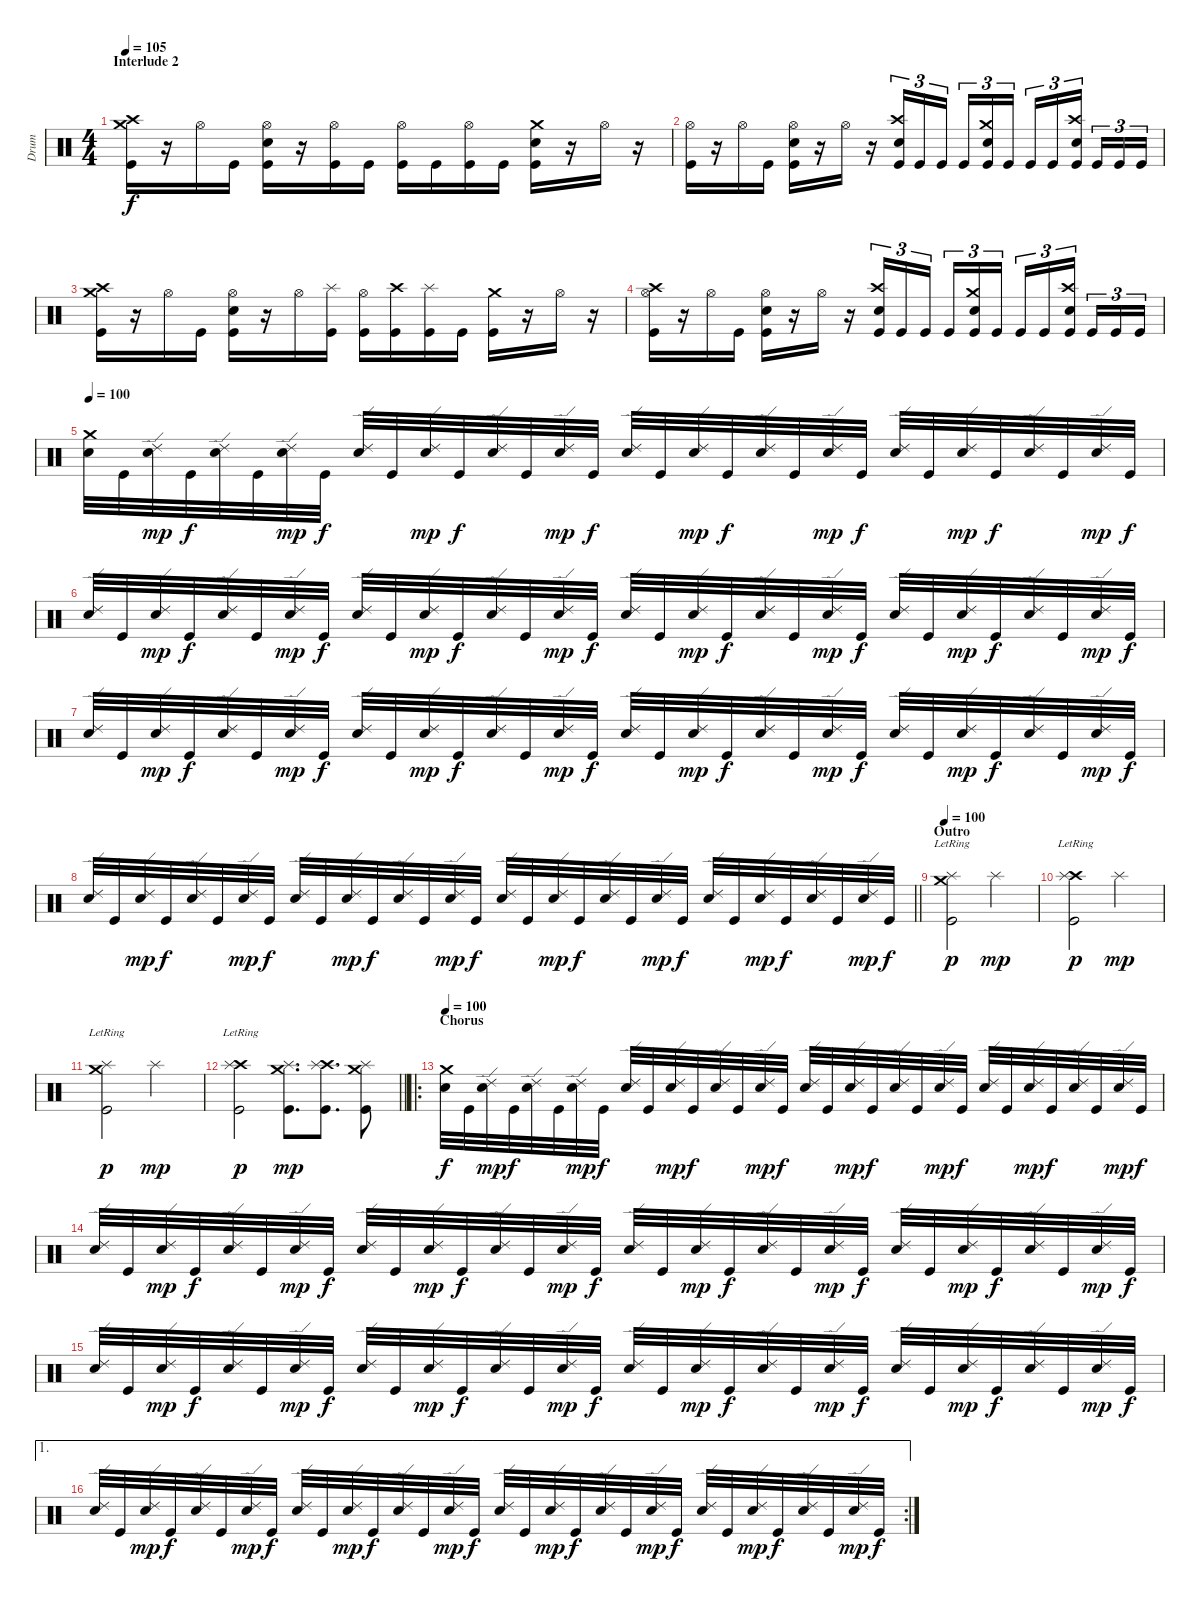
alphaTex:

\track ("Drum" "Drum") {instrument percussion}
\staff {score}
\articulation defaults
\ts (4 4)
\section ("" "Interlude 2")
\tempo 105
\clef neutral
\ks c
("Kick (hit)" "Crash medium (hit)" "Crash high (hit)").16{dy f} r.16 "Hi-Hat (open)".16 "Kick (hit)".16 ("Kick (hit)" "Hi-Hat (open)" "Electric Snare (hit)").16 r.16 ("Kick (hit)" "Hi-Hat (open)").16 "Kick (hit)".16 ("Kick (hit)" "Hi-Hat (open)").16 "Kick (hit)".16 ("Kick (hit)" "Hi-Hat (open)").16 "Kick (hit)".16 ("Kick (hit)" "Electric Snare (hit)" "Crash medium (hit)").16 r.16 "Hi-Hat (open)".16 r.16 |
("Kick (hit)" "Hi-Hat (open)").16 r.16 "Hi-Hat (open)".16 "Kick (hit)".16 ("Kick (hit)" "Hi-Hat (open)" "Electric Snare (hit)").16 r.16 "Hi-Hat (open)".16 r.16 ("Kick (hit)" "Electric Snare (hit)" "Crash high (hit)").16{tu (3 2)} "Kick (hit)".16{tu (3 2)} "Kick (hit)".16{tu (3 2)} "Kick (hit)".16{tu (3 2)} ("Kick (hit)" "Electric Snare (hit)" "Crash medium (hit)").16{tu (3 2)} "Kick (hit)".16{tu (3 2)} "Kick (hit)".16{tu (3 2)} "Kick (hit)".16{tu (3 2)} ("Kick (hit)" "Electric Snare (hit)" "Crash high (hit)").16{tu (3 2)} "Kick (hit)".16{tu (3 2)} "Kick (hit)".16{tu (3 2)} "Kick (hit)".16{tu (3 2)} |
("Kick (hit)" "Crash medium (hit)" "Crash high (hit)").16 r.16 "Hi-Hat (open)".16 "Kick (hit)".16 ("Kick (hit)" "Hi-Hat (open)" "Electric Snare (hit)").16 r.16 "Hi-Hat (open)".16 ("Kick (hit)" "Splash (hit)").16 ("Kick (hit)" "Hi-Hat (open)").16 ("Kick (hit)" "Crash high (hit)").16 ("Kick (hit)" "Splash (hit)").16 "Kick (hit)".16 ("Kick (hit)" "Crash medium (hit)").16 r.16 "Hi-Hat (open)".16 r.16 |
("Kick (hit)" "Hi-Hat (open)" "Crash high (hit)").16 r.16 "Hi-Hat (open)".16 "Kick (hit)".16 ("Kick (hit)" "Hi-Hat (open)" "Electric Snare (hit)").16 r.16 "Hi-Hat (open)".16 r.16 ("Kick (hit)" "Electric Snare (hit)" "Crash high (hit)").16{tu (3 2)} "Kick (hit)".16{tu (3 2)} "Kick (hit)".16{tu (3 2)} "Kick (hit)".16{tu (3 2)} ("Kick (hit)" "Electric Snare (hit)" "Crash medium (hit)").16{tu (3 2)} "Kick (hit)".16{tu (3 2)} "Kick (hit)".16{tu (3 2)} "Kick (hit)".16{tu (3 2)} ("Kick (hit)" "Electric Snare (hit)" "Crash high (hit)").16{tu (3 2)} "Kick (hit)".16{tu (3 2)} "Kick (hit)".16{tu (3 2)} "Kick (hit)".16{tu (3 2)} |
\tempo 100
("Snare (hit) 2" "Crash medium (hit)").32 "Kick (hit)".32 ("Ride (edge) 2" "Snare (hit) 2").32{dy mp} "Kick (hit)".32{dy f} ("Ride (edge) 2" "Snare (hit) 2").32 "Kick (hit)".32 ("Ride (edge) 2" "Snare (hit) 2").32{dy mp} "Kick (hit)".32{dy f} ("Ride (edge) 2" "Snare (hit) 2").32 "Kick (hit)".32 ("Ride (edge) 2" "Snare (hit) 2").32{dy mp} "Kick (hit)".32{dy f} ("Ride (edge) 2" "Snare (hit) 2").32 "Kick (hit)".32 ("Ride (edge) 2" "Snare (hit) 2").32{dy mp} "Kick (hit)".32{dy f} ("Ride (edge) 2" "Snare (hit) 2").32 "Kick (hit)".32 ("Ride (edge) 2" "Snare (hit) 2").32{dy mp} "Kick (hit)".32{dy f} ("Ride (edge) 2" "Snare (hit) 2").32 "Kick (hit)".32 ("Ride (edge) 2" "Snare (hit) 2").32{dy mp} "Kick (hit)".32{dy f} ("Ride (edge) 2" "Snare (hit) 2").32 "Kick (hit)".32 ("Ride (edge) 2" "Snare (hit) 2").32{dy mp} "Kick (hit)".32{dy f} ("Ride (edge) 2" "Snare (hit) 2").32 "Kick (hit)".32 ("Ride (edge) 2" "Snare (hit) 2").32{dy mp} "Kick (hit)".32{dy f} |
("Ride (edge) 2" "Snare (hit) 2").32 "Kick (hit)".32 ("Ride (edge) 2" "Snare (hit) 2").32{dy mp} "Kick (hit)".32{dy f} ("Ride (edge) 2" "Snare (hit) 2").32 "Kick (hit)".32 ("Ride (edge) 2" "Snare (hit) 2").32{dy mp} "Kick (hit)".32{dy f} ("Ride (edge) 2" "Snare (hit) 2").32 "Kick (hit)".32 ("Ride (edge) 2" "Snare (hit) 2").32{dy mp} "Kick (hit)".32{dy f} ("Ride (edge) 2" "Snare (hit) 2").32 "Kick (hit)".32 ("Ride (edge) 2" "Snare (hit) 2").32{dy mp} "Kick (hit)".32{dy f} ("Ride (edge) 2" "Snare (hit) 2").32 "Kick (hit)".32 ("Ride (edge) 2" "Snare (hit) 2").32{dy mp} "Kick (hit)".32{dy f} ("Ride (edge) 2" "Snare (hit) 2").32 "Kick (hit)".32 ("Ride (edge) 2" "Snare (hit) 2").32{dy mp} "Kick (hit)".32{dy f} ("Ride (edge) 2" "Snare (hit) 2").32 "Kick (hit)".32 ("Ride (edge) 2" "Snare (hit) 2").32{dy mp} "Kick (hit)".32{dy f} ("Ride (edge) 2" "Snare (hit) 2").32 "Kick (hit)".32 ("Ride (edge) 2" "Snare (hit) 2").32{dy mp} "Kick (hit)".32{dy f} |
("Ride (edge) 2" "Snare (hit) 2").32 "Kick (hit)".32 ("Ride (edge) 2" "Snare (hit) 2").32{dy mp} "Kick (hit)".32{dy f} ("Ride (edge) 2" "Snare (hit) 2").32 "Kick (hit)".32 ("Ride (edge) 2" "Snare (hit) 2").32{dy mp} "Kick (hit)".32{dy f} ("Ride (edge) 2" "Snare (hit) 2").32 "Kick (hit)".32 ("Ride (edge) 2" "Snare (hit) 2").32{dy mp} "Kick (hit)".32{dy f} ("Ride (edge) 2" "Snare (hit) 2").32 "Kick (hit)".32 ("Ride (edge) 2" "Snare (hit) 2").32{dy mp} "Kick (hit)".32{dy f} ("Ride (edge) 2" "Snare (hit) 2").32 "Kick (hit)".32 ("Ride (edge) 2" "Snare (hit) 2").32{dy mp} "Kick (hit)".32{dy f} ("Ride (edge) 2" "Snare (hit) 2").32 "Kick (hit)".32 ("Ride (edge) 2" "Snare (hit) 2").32{dy mp} "Kick (hit)".32{dy f} ("Ride (edge) 2" "Snare (hit) 2").32 "Kick (hit)".32 ("Ride (edge) 2" "Snare (hit) 2").32{dy mp} "Kick (hit)".32{dy f} ("Ride (edge) 2" "Snare (hit) 2").32 "Kick (hit)".32 ("Ride (edge) 2" "Snare (hit) 2").32{dy mp} "Kick (hit)".32{dy f} |
\barLineRight lightlight
("Ride (edge) 2" "Snare (hit) 2").32 "Kick (hit)".32 ("Ride (edge) 2" "Snare (hit) 2").32{dy mp} "Kick (hit)".32{dy f} ("Ride (edge) 2" "Snare (hit) 2").32 "Kick (hit)".32 ("Ride (edge) 2" "Snare (hit) 2").32{dy mp} "Kick (hit)".32{dy f} ("Ride (edge) 2" "Snare (hit) 2").32 "Kick (hit)".32 ("Ride (edge) 2" "Snare (hit) 2").32{dy mp} "Kick (hit)".32{dy f} ("Ride (edge) 2" "Snare (hit) 2").32 "Kick (hit)".32 ("Ride (edge) 2" "Snare (hit) 2").32{dy mp} "Kick (hit)".32{dy f} ("Ride (edge) 2" "Snare (hit) 2").32 "Kick (hit)".32 ("Ride (edge) 2" "Snare (hit) 2").32{dy mp} "Kick (hit)".32{dy f} ("Ride (edge) 2" "Snare (hit) 2").32 "Kick (hit)".32 ("Ride (edge) 2" "Snare (hit) 2").32{dy mp} "Kick (hit)".32{dy f} ("Ride (edge) 2" "Snare (hit) 2").32 "Kick (hit)".32 ("Ride (edge) 2" "Snare (hit) 2").32{dy mp} "Kick (hit)".32{dy f} ("Ride (edge) 2" "Snare (hit) 2").32 "Kick (hit)".32 ("Ride (edge) 2" "Snare (hit) 2").32{dy mp} "Kick (hit)".32{dy f} |
\section ("" "Outro")
\tempo 100
("Kick (hit)" "Crash medium (hit)"{lr} "Splash (hit)"{tr (49 64)}).2{dy p} "Splash (hit)"{tr (49 64)}.2{dy mp} |
("Kick (hit)" "Crash high (hit)"{lr} "Splash (hit)"{tr (57 64)}).2{dy p} "Splash (hit)"{tr (57 64)}.2{dy mp} |
("Kick (hit)" "Crash medium (hit)"{lr} "Splash (hit)"{tr (49 64)}).2{dy p} "Splash (hit)"{tr (49 64)}.2{dy mp} |
\barLineRight lightlight
("Kick (hit)" "Crash high (hit)"{lr} "Splash (hit)"{tr (57 64)}).2{dy p} ("Kick (hit)" "Crash medium (hit)" "Splash (hit)"{tr (49 64)}).8{d dy mp} ("Kick (hit)" "Crash high (hit)" "Splash (hit)"{tr (57 64)}).8{d} ("Kick (hit)" "Crash medium (hit)" "Splash (hit)"{tr (49 64)}).8 |
\ro
\section ("" "Chorus")
\tempo 100
("Snare (hit) 2" "Crash medium (hit)").32{dy f} "Kick (hit)".32 ("Ride (edge) 2" "Snare (hit) 2").32{dy mp} "Kick (hit)".32{dy f} ("Ride (edge) 2" "Snare (hit) 2").32 "Kick (hit)".32 ("Ride (edge) 2" "Snare (hit) 2").32{dy mp} "Kick (hit)".32{dy f} ("Ride (edge) 2" "Snare (hit) 2").32 "Kick (hit)".32 ("Ride (edge) 2" "Snare (hit) 2").32{dy mp} "Kick (hit)".32{dy f} ("Ride (edge) 2" "Snare (hit) 2").32 "Kick (hit)".32 ("Ride (edge) 2" "Snare (hit) 2").32{dy mp} "Kick (hit)".32{dy f} ("Ride (edge) 2" "Snare (hit) 2").32 "Kick (hit)".32 ("Ride (edge) 2" "Snare (hit) 2").32{dy mp} "Kick (hit)".32{dy f} ("Ride (edge) 2" "Snare (hit) 2").32 "Kick (hit)".32 ("Ride (edge) 2" "Snare (hit) 2").32{dy mp} "Kick (hit)".32{dy f} ("Ride (edge) 2" "Snare (hit) 2").32 "Kick (hit)".32 ("Ride (edge) 2" "Snare (hit) 2").32{dy mp} "Kick (hit)".32{dy f} ("Ride (edge) 2" "Snare (hit) 2").32 "Kick (hit)".32 ("Ride (edge) 2" "Snare (hit) 2").32{dy mp} "Kick (hit)".32{dy f} |
("Ride (edge) 2" "Snare (hit) 2").32 "Kick (hit)".32 ("Ride (edge) 2" "Snare (hit) 2").32{dy mp} "Kick (hit)".32{dy f} ("Ride (edge) 2" "Snare (hit) 2").32 "Kick (hit)".32 ("Ride (edge) 2" "Snare (hit) 2").32{dy mp} "Kick (hit)".32{dy f} ("Ride (edge) 2" "Snare (hit) 2").32 "Kick (hit)".32 ("Ride (edge) 2" "Snare (hit) 2").32{dy mp} "Kick (hit)".32{dy f} ("Ride (edge) 2" "Snare (hit) 2").32 "Kick (hit)".32 ("Ride (edge) 2" "Snare (hit) 2").32{dy mp} "Kick (hit)".32{dy f} ("Ride (edge) 2" "Snare (hit) 2").32 "Kick (hit)".32 ("Ride (edge) 2" "Snare (hit) 2").32{dy mp} "Kick (hit)".32{dy f} ("Ride (edge) 2" "Snare (hit) 2").32 "Kick (hit)".32 ("Ride (edge) 2" "Snare (hit) 2").32{dy mp} "Kick (hit)".32{dy f} ("Ride (edge) 2" "Snare (hit) 2").32 "Kick (hit)".32 ("Ride (edge) 2" "Snare (hit) 2").32{dy mp} "Kick (hit)".32{dy f} ("Ride (edge) 2" "Snare (hit) 2").32 "Kick (hit)".32 ("Ride (edge) 2" "Snare (hit) 2").32{dy mp} "Kick (hit)".32{dy f} |
("Ride (edge) 2" "Snare (hit) 2").32 "Kick (hit)".32 ("Ride (edge) 2" "Snare (hit) 2").32{dy mp} "Kick (hit)".32{dy f} ("Ride (edge) 2" "Snare (hit) 2").32 "Kick (hit)".32 ("Ride (edge) 2" "Snare (hit) 2").32{dy mp} "Kick (hit)".32{dy f} ("Ride (edge) 2" "Snare (hit) 2").32 "Kick (hit)".32 ("Ride (edge) 2" "Snare (hit) 2").32{dy mp} "Kick (hit)".32{dy f} ("Ride (edge) 2" "Snare (hit) 2").32 "Kick (hit)".32 ("Ride (edge) 2" "Snare (hit) 2").32{dy mp} "Kick (hit)".32{dy f} ("Ride (edge) 2" "Snare (hit) 2").32 "Kick (hit)".32 ("Ride (edge) 2" "Snare (hit) 2").32{dy mp} "Kick (hit)".32{dy f} ("Ride (edge) 2" "Snare (hit) 2").32 "Kick (hit)".32 ("Ride (edge) 2" "Snare (hit) 2").32{dy mp} "Kick (hit)".32{dy f} ("Ride (edge) 2" "Snare (hit) 2").32 "Kick (hit)".32 ("Ride (edge) 2" "Snare (hit) 2").32{dy mp} "Kick (hit)".32{dy f} ("Ride (edge) 2" "Snare (hit) 2").32 "Kick (hit)".32 ("Ride (edge) 2" "Snare (hit) 2").32{dy mp} "Kick (hit)".32{dy f} |
\ae 1
\rc 2
("Ride (edge) 2" "Snare (hit) 2").32 "Kick (hit)".32 ("Ride (edge) 2" "Snare (hit) 2").32{dy mp} "Kick (hit)".32{dy f} ("Ride (edge) 2" "Snare (hit) 2").32 "Kick (hit)".32 ("Ride (edge) 2" "Snare (hit) 2").32{dy mp} "Kick (hit)".32{dy f} ("Ride (edge) 2" "Snare (hit) 2").32 "Kick (hit)".32 ("Ride (edge) 2" "Snare (hit) 2").32{dy mp} "Kick (hit)".32{dy f} ("Ride (edge) 2" "Snare (hit) 2").32 "Kick (hit)".32 ("Ride (edge) 2" "Snare (hit) 2").32{dy mp} "Kick (hit)".32{dy f} ("Ride (edge) 2" "Snare (hit) 2").32 "Kick (hit)".32 ("Ride (edge) 2" "Snare (hit) 2").32{dy mp} "Kick (hit)".32{dy f} ("Ride (edge) 2" "Snare (hit) 2").32 "Kick (hit)".32 ("Ride (edge) 2" "Snare (hit) 2").32{dy mp} "Kick (hit)".32{dy f} ("Ride (edge) 2" "Snare (hit) 2").32 "Kick (hit)".32 ("Ride (edge) 2" "Snare (hit) 2").32{dy mp} "Kick (hit)".32{dy f} ("Ride (edge) 2" "Snare (hit) 2").32 "Kick (hit)".32 ("Ride (edge) 2" "Snare (hit) 2").32{dy mp} "Kick (hit)".32{dy f}
